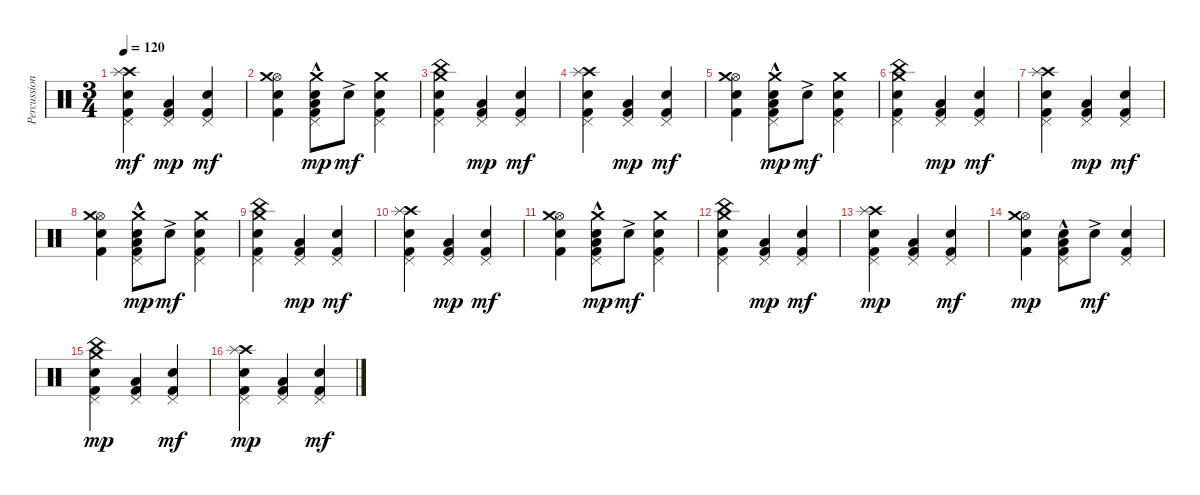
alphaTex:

\track ("Percussion" "Percussion") {instrument percussion}
\staff {score}
\articulation defaults
\ts (3 4)
\tempo 120
\clef neutral
\ks c
("Snare (hit) 2" "Kick (hit) 2" "Crash high (hit)" "Pedal Hi-Hat (hit)" "Splash (hit)").4{dy mf} ("Kick (hit) 2" "Pedal Hi-Hat (hit)" "Low Tom (hit)").4{dy mp} ("Snare (hit) 2" "Kick (hit) 2" "Pedal Hi-Hat (hit)").4{dy mf} |
("Snare (hit) 2" "Kick (hit) 2" "Hi-Hat (open)" "Crash medium (hit)").4 ("Snare (hit) 2"{hac} "Kick (hit) 2" "Pedal Hi-Hat (hit)" "Crash medium (hit)" "Low Tom (hit)").8{dy mp} "Snare (hit) 2"{ac}.8{dy mf} ("Snare (hit) 2" "Kick (hit) 2" "Pedal Hi-Hat (hit)" "Crash medium (hit)").4 |
("Snare (hit) 2" "Kick (hit) 2" "Crash medium (hit)" "Pedal Hi-Hat (hit)" "China (hit)").4 ("Kick (hit) 2" "Pedal Hi-Hat (hit)" "Low Tom (hit)").4{dy mp} ("Snare (hit) 2" "Kick (hit) 2" "Pedal Hi-Hat (hit)").4{dy mf} |
("Snare (hit) 2" "Kick (hit) 2" "Crash high (hit)" "Pedal Hi-Hat (hit)" "Splash (hit)").4 ("Kick (hit) 2" "Pedal Hi-Hat (hit)" "Low Tom (hit)").4{dy mp} ("Snare (hit) 2" "Kick (hit) 2" "Pedal Hi-Hat (hit)").4{dy mf} |
("Snare (hit) 2" "Kick (hit) 2" "Hi-Hat (open)" "Crash medium (hit)").4 ("Snare (hit) 2"{hac} "Kick (hit) 2" "Pedal Hi-Hat (hit)" "Crash medium (hit)" "Low Tom (hit)").8{dy mp} "Snare (hit) 2"{ac}.8{dy mf} ("Snare (hit) 2" "Kick (hit) 2" "Pedal Hi-Hat (hit)" "Crash medium (hit)").4 |
("Snare (hit) 2" "Kick (hit) 2" "Crash medium (hit)" "Pedal Hi-Hat (hit)" "China (hit)").4 ("Kick (hit) 2" "Pedal Hi-Hat (hit)" "Low Tom (hit)").4{dy mp} ("Snare (hit) 2" "Kick (hit) 2" "Pedal Hi-Hat (hit)").4{dy mf} |
("Snare (hit) 2" "Kick (hit) 2" "Crash high (hit)" "Pedal Hi-Hat (hit)" "Splash (hit)").4 ("Kick (hit) 2" "Pedal Hi-Hat (hit)" "Low Tom (hit)").4{dy mp} ("Snare (hit) 2" "Kick (hit) 2" "Pedal Hi-Hat (hit)").4{dy mf} |
("Snare (hit) 2" "Kick (hit) 2" "Hi-Hat (open)" "Crash medium (hit)").4 ("Snare (hit) 2"{hac} "Kick (hit) 2" "Pedal Hi-Hat (hit)" "Crash medium (hit)" "Low Tom (hit)").8{dy mp} "Snare (hit) 2"{ac}.8{dy mf} ("Snare (hit) 2" "Kick (hit) 2" "Pedal Hi-Hat (hit)" "Crash medium (hit)").4 |
("Snare (hit) 2" "Kick (hit) 2" "Crash medium (hit)" "Pedal Hi-Hat (hit)" "China (hit)").4 ("Kick (hit) 2" "Pedal Hi-Hat (hit)" "Low Tom (hit)").4{dy mp} ("Snare (hit) 2" "Kick (hit) 2" "Pedal Hi-Hat (hit)").4{dy mf} |
("Snare (hit) 2" "Kick (hit) 2" "Crash high (hit)" "Pedal Hi-Hat (hit)" "Splash (hit)").4 ("Kick (hit) 2" "Pedal Hi-Hat (hit)" "Low Tom (hit)").4{dy mp} ("Snare (hit) 2" "Kick (hit) 2" "Pedal Hi-Hat (hit)").4{dy mf} |
("Snare (hit) 2" "Kick (hit) 2" "Hi-Hat (open)" "Crash medium (hit)").4 ("Snare (hit) 2"{hac} "Kick (hit) 2" "Pedal Hi-Hat (hit)" "Crash medium (hit)" "Low Tom (hit)").8{dy mp} "Snare (hit) 2"{ac}.8{dy mf} ("Snare (hit) 2" "Kick (hit) 2" "Pedal Hi-Hat (hit)" "Crash medium (hit)").4 |
("Snare (hit) 2" "Kick (hit) 2" "Crash medium (hit)" "Pedal Hi-Hat (hit)" "China (hit)").4 ("Kick (hit) 2" "Pedal Hi-Hat (hit)" "Low Tom (hit)").4{dy mp} ("Snare (hit) 2" "Kick (hit) 2" "Pedal Hi-Hat (hit)").4{dy mf} |
("Snare (hit) 2" "Kick (hit) 2" "Crash high (hit)" "Pedal Hi-Hat (hit)" "Splash (hit)").4{dy mp} ("Kick (hit) 2" "Pedal Hi-Hat (hit)" "Low Tom (hit)").4 ("Snare (hit) 2" "Kick (hit) 2" "Pedal Hi-Hat (hit)").4{dy mf} |
("Snare (hit) 2" "Kick (hit) 2" "Hi-Hat (open)" "Crash medium (hit)").4{dy mp} ("Snare (hit) 2"{hac} "Kick (hit) 2" "Pedal Hi-Hat (hit)" "Low Tom (hit)").8 "Snare (hit) 2"{ac}.8{dy mf} ("Snare (hit) 2" "Kick (hit) 2" "Pedal Hi-Hat (hit)").4 |
("Snare (hit) 2" "Kick (hit) 2" "Crash medium (hit)" "Pedal Hi-Hat (hit)" "China (hit)").4{dy mp} ("Kick (hit) 2" "Pedal Hi-Hat (hit)" "Low Tom (hit)").4 ("Snare (hit) 2" "Kick (hit) 2" "Pedal Hi-Hat (hit)").4{dy mf} |
("Snare (hit) 2" "Kick (hit) 2" "Crash high (hit)" "Pedal Hi-Hat (hit)" "Splash (hit)").4{dy mp} ("Kick (hit) 2" "Pedal Hi-Hat (hit)" "Low Tom (hit)").4 ("Snare (hit) 2" "Kick (hit) 2" "Pedal Hi-Hat (hit)").4{dy mf}
